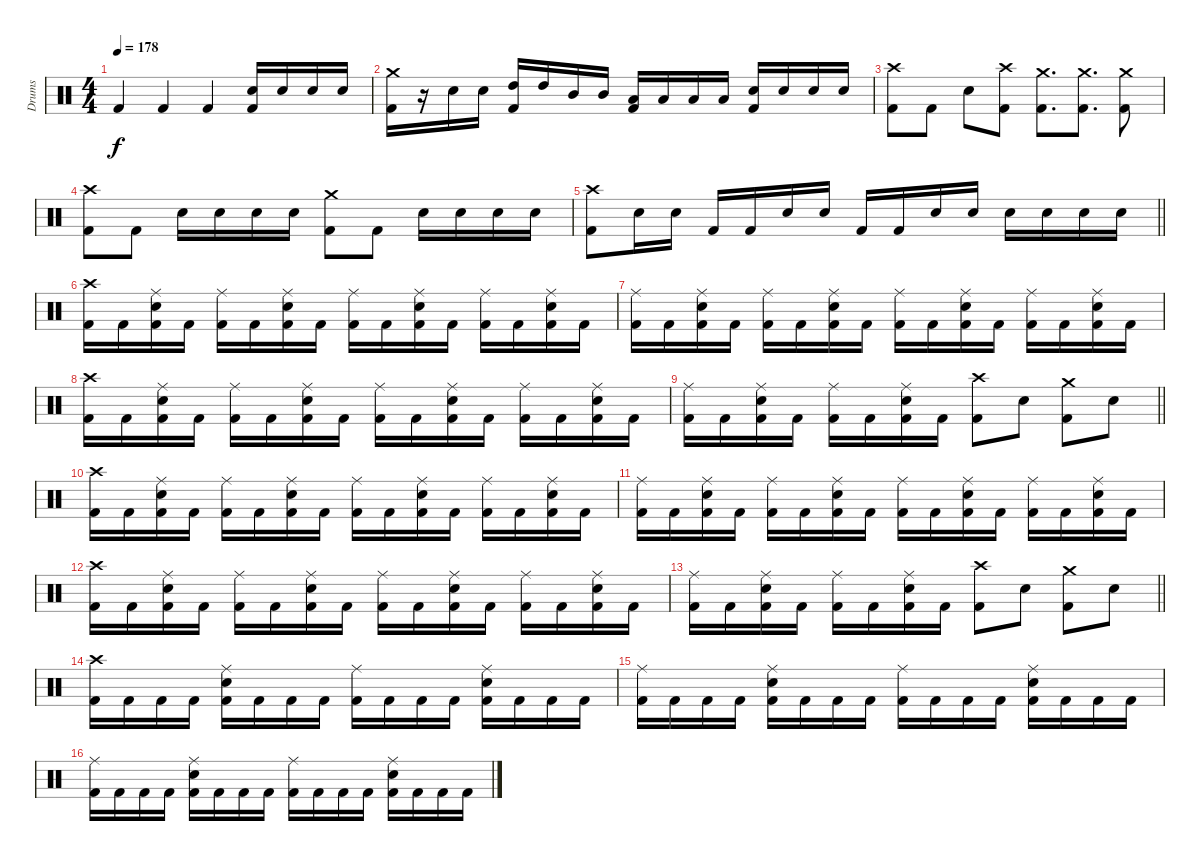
\track ("Drums" "Drums") {instrument percussion}
\staff {score}
\articulation defaults
\ts (4 4)
\tempo 178
\clef neutral
\ks c "Kick (hit) 2".4{dy f} "Kick (hit) 2".4 "Kick (hit) 2".4
("Snare (hit) 2" "Kick (hit) 2").16 "Snare (hit) 2".16 "Snare (hit) 2".16 "Snare (hit) 2".16 |
("Crash medium (hit)" "Kick (hit) 2").16 r.16 "Snare (hit) 2".16 "Snare (hit) 2".16 ("High Tom (hit)" "Kick (hit) 2").16 "High Tom (hit)".16 "Mid Tom (hit)".16 "Mid Tom (hit)".16 ("Low Tom (hit)" "Kick (hit) 2").16 "Low Tom (hit)".16 "Low Floor Tom (hit)".16 "Low Floor Tom (hit)".16 ("Snare (hit) 2" "Kick (hit) 2").16 "Snare (hit) 2".16 "Snare (hit) 2".16 "Snare (hit) 2".16 |
("Crash high (hit)" "Kick (hit) 2").8 "Kick (hit) 2".8 "Snare (hit) 2".8 ("Crash high (hit)" "Kick (hit) 2").8 ("Crash medium (hit)" "Kick (hit) 2").8{d} ("Crash medium (hit)" "Kick (hit) 2").8{d} ("Crash medium (hit)" "Kick (hit) 2").8 |
("Crash high (hit)" "Kick (hit) 2").8 "Kick (hit) 2".8 "Snare (hit) 2".16 "Snare (hit) 2".16 "Snare (hit) 2".16 "Snare (hit) 2".16 ("Crash medium (hit)" "Kick (hit) 2").8 "Kick (hit) 2".8 "Snare (hit) 2".16 "Snare (hit) 2".16 "Snare (hit) 2".16 "Snare (hit) 2".16 |
\barLineRight lightlight
("Crash high (hit)" "Kick (hit) 2").8 "Snare (hit) 2".16 "Snare (hit) 2".16 "Kick (hit) 2".16 "Kick (hit) 2".16 "Snare (hit) 2".16 "Snare (hit) 2".16 "Kick (hit) 2".16 "Kick (hit) 2".16 "Snare (hit) 2".16 "Snare (hit) 2".16 "Snare (hit) 2".16 "Snare (hit) 2".16 "Snare (hit) 2".16 "Snare (hit) 2".16 |
("Crash high (hit)" "Kick (hit) 2").16 "Kick (hit) 2".16 ("Ride (middle)" "Snare (hit) 2" "Kick (hit) 2").16 "Kick (hit) 2".16 ("Ride (middle)" "Kick (hit) 2").16 "Kick (hit) 2".16 ("Ride (middle)" "Snare (hit) 2" "Kick (hit) 2").16 "Kick (hit) 2".16 ("Ride (middle)" "Kick (hit) 2").16 "Kick (hit) 2".16 ("Ride (middle)" "Snare (hit) 2" "Kick (hit) 2").16 "Kick (hit) 2".16 ("Ride (middle)" "Kick (hit) 2").16 "Kick (hit) 2".16 ("Ride (middle)" "Snare (hit) 2" "Kick (hit) 2").16 "Kick (hit) 2".16 |
("Ride (middle)" "Kick (hit) 2").16 "Kick (hit) 2".16 ("Ride (middle)" "Snare (hit) 2" "Kick (hit) 2").16 "Kick (hit) 2".16 ("Ride (middle)" "Kick (hit) 2").16 "Kick (hit) 2".16 ("Ride (middle)" "Snare (hit) 2" "Kick (hit) 2").16 "Kick (hit) 2".16 ("Ride (middle)" "Kick (hit) 2").16 "Kick (hit) 2".16 ("Ride (middle)" "Snare (hit) 2" "Kick (hit) 2").16 "Kick (hit) 2".16 ("Ride (middle)" "Kick (hit) 2").16 "Kick (hit) 2".16 ("Ride (middle)" "Snare (hit) 2" "Kick (hit) 2").16 "Kick (hit) 2".16 |
("Crash high (hit)" "Kick (hit) 2").16 "Kick (hit) 2".16 ("Ride (middle)" "Snare (hit) 2" "Kick (hit) 2").16 "Kick (hit) 2".16 ("Ride (middle)" "Kick (hit) 2").16 "Kick (hit) 2".16 ("Ride (middle)" "Snare (hit) 2" "Kick (hit) 2").16 "Kick (hit) 2".16 ("Ride (middle)" "Kick (hit) 2").16 "Kick (hit) 2".16 ("Ride (middle)" "Snare (hit) 2" "Kick (hit) 2").16 "Kick (hit) 2".16 ("Ride (middle)" "Kick (hit) 2").16 "Kick (hit) 2".16 ("Ride (middle)" "Snare (hit) 2" "Kick (hit) 2").16 "Kick (hit) 2".16 |
\barLineRight lightlight
("Ride (middle)" "Kick (hit) 2").16 "Kick (hit) 2".16 ("Ride (middle)" "Snare (hit) 2" "Kick (hit) 2").16 "Kick (hit) 2".16 ("Ride (middle)" "Kick (hit) 2").16 "Kick (hit) 2".16 ("Ride (middle)" "Snare (hit) 2" "Kick (hit) 2").16 "Kick (hit) 2".16 ("Crash high (hit)" "Kick (hit) 2").8 "Electric Snare (hit)".8 ("Crash medium (hit)" "Kick (hit) 2").8 "Electric Snare (hit)".8 |
("Crash high (hit)" "Kick (hit) 2").16 "Kick (hit) 2".16 ("Ride (middle)" "Snare (hit) 2" "Kick (hit) 2").16 "Kick (hit) 2".16 ("Ride (middle)" "Kick (hit) 2").16 "Kick (hit) 2".16 ("Ride (middle)" "Snare (hit) 2" "Kick (hit) 2").16 "Kick (hit) 2".16 ("Ride (middle)" "Kick (hit) 2").16 "Kick (hit) 2".16 ("Ride (middle)" "Snare (hit) 2" "Kick (hit) 2").16 "Kick (hit) 2".16 ("Ride (middle)" "Kick (hit) 2").16 "Kick (hit) 2".16 ("Ride (middle)" "Snare (hit) 2" "Kick (hit) 2").16 "Kick (hit) 2".16 |
("Ride (middle)" "Kick (hit) 2").16 "Kick (hit) 2".16 ("Ride (middle)" "Snare (hit) 2" "Kick (hit) 2").16 "Kick (hit) 2".16 ("Ride (middle)" "Kick (hit) 2").16 "Kick (hit) 2".16 ("Ride (middle)" "Snare (hit) 2" "Kick (hit) 2").16 "Kick (hit) 2".16 ("Ride (middle)" "Kick (hit) 2").16 "Kick (hit) 2".16 ("Ride (middle)" "Snare (hit) 2" "Kick (hit) 2").16 "Kick (hit) 2".16 ("Ride (middle)" "Kick (hit) 2").16 "Kick (hit) 2".16 ("Ride (middle)" "Snare (hit) 2" "Kick (hit) 2").16 "Kick (hit) 2".16 |
("Crash high (hit)" "Kick (hit) 2").16 "Kick (hit) 2".16 ("Ride (middle)" "Snare (hit) 2" "Kick (hit) 2").16 "Kick (hit) 2".16 ("Ride (middle)" "Kick (hit) 2").16 "Kick (hit) 2".16 ("Ride (middle)" "Snare (hit) 2" "Kick (hit) 2").16 "Kick (hit) 2".16 ("Ride (middle)" "Kick (hit) 2").16 "Kick (hit) 2".16 ("Ride (middle)" "Snare (hit) 2" "Kick (hit) 2").16 "Kick (hit) 2".16 ("Ride (middle)" "Kick (hit) 2").16 "Kick (hit) 2".16 ("Ride (middle)" "Snare (hit) 2" "Kick (hit) 2").16 "Kick (hit) 2".16 |
\barLineRight lightlight
("Ride (middle)" "Kick (hit) 2").16 "Kick (hit) 2".16 ("Ride (middle)" "Snare (hit) 2" "Kick (hit) 2").16 "Kick (hit) 2".16 ("Ride (middle)" "Kick (hit) 2").16 "Kick (hit) 2".16 ("Ride (middle)" "Snare (hit) 2" "Kick (hit) 2").16 "Kick (hit) 2".16 ("Crash high (hit)" "Kick (hit) 2").8 "Electric Snare (hit)".8 ("Crash medium (hit)" "Kick (hit) 2").8 "Electric Snare (hit)".8 |
("Crash high (hit)" "Kick (hit) 2").16 "Kick (hit) 2".16 "Kick (hit) 2".16 "Kick (hit) 2".16 ("Ride (middle)" "Snare (hit) 2" "Kick (hit) 2").16 "Kick (hit) 2".16 "Kick (hit) 2".16 "Kick (hit) 2".16 ("Ride (middle)" "Kick (hit) 2").16 "Kick (hit) 2".16 "Kick (hit) 2".16 "Kick (hit) 2".16 ("Ride (middle)" "Snare (hit) 2" "Kick (hit) 2").16 "Kick (hit) 2".16 "Kick (hit) 2".16 "Kick (hit) 2".16 |
("Ride (middle)" "Kick (hit) 2").16 "Kick (hit) 2".16 "Kick (hit) 2".16 "Kick (hit) 2".16 ("Ride (middle)" "Snare (hit) 2" "Kick (hit) 2").16 "Kick (hit) 2".16 "Kick (hit) 2".16 "Kick (hit) 2".16 ("Ride (middle)" "Kick (hit) 2").16 "Kick (hit) 2".16 "Kick (hit) 2".16 "Kick (hit) 2".16 ("Ride (middle)" "Snare (hit) 2" "Kick (hit) 2").16 "Kick (hit) 2".16 "Kick (hit) 2".16 "Kick (hit) 2".16 |
("Ride (middle)" "Kick (hit) 2").16 "Kick (hit) 2".16 "Kick (hit) 2".16 "Kick (hit) 2".16 ("Ride (middle)" "Snare (hit) 2" "Kick (hit) 2").16 "Kick (hit) 2".16 "Kick (hit) 2".16 "Kick (hit) 2".16 ("Ride (middle)" "Kick (hit) 2").16 "Kick (hit) 2".16 "Kick (hit) 2".16 "Kick (hit) 2".16 ("Ride (middle)" "Snare (hit) 2" "Kick (hit) 2").16 "Kick (hit) 2".16 "Kick (hit) 2".16 "Kick (hit) 2".16
